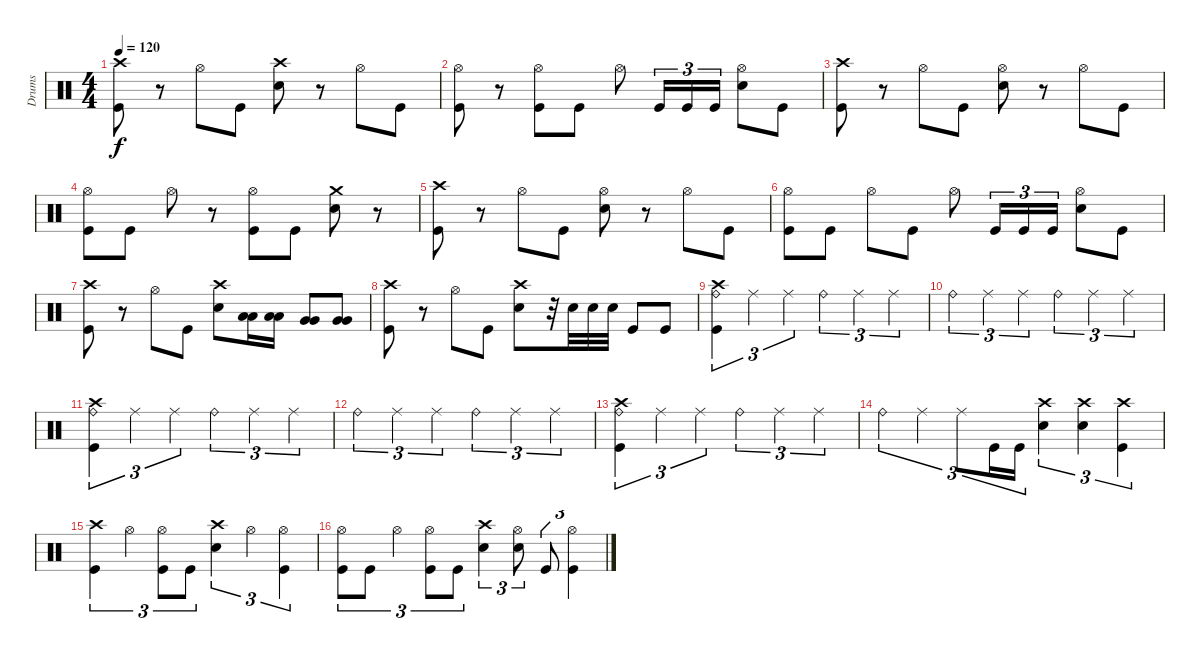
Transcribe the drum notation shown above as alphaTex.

\track ("Drums" "Drums") {instrument percussion}
\staff {score}
\articulation defaults
\ts (4 4)
\tempo 120
\clef neutral
\ks c
("Crash high (hit)" "Kick (hit)").8{dy f} r.8 "Hi-Hat (open)".8 "Kick (hit)".8 ("Crash high (hit)" "Electric Snare (hit)").8 r.8 "Hi-Hat (open)".8 "Kick (hit)".8 |
("Hi-Hat (open)" "Kick (hit)").8 r.8 ("Hi-Hat (open)" "Kick (hit)").8 "Kick (hit)".8 "Hi-Hat (open)".8 "Kick (hit)".16{tu (3 2)} "Kick (hit)".16{tu (3 2)} "Kick (hit)".16{tu (3 2)} ("Hi-Hat (open)" "Electric Snare (hit)").8 "Kick (hit)".8 |
("Crash high (hit)" "Kick (hit)").8 r.8 "Hi-Hat (open)".8 "Kick (hit)".8 ("Hi-Hat (open)" "Electric Snare (hit)").8 r.8 "Hi-Hat (open)".8 "Kick (hit)".8 |
("Hi-Hat (open)" "Kick (hit)").8 "Kick (hit)".8 "Hi-Hat (open)".8 r.8 ("Hi-Hat (open)" "Kick (hit)").8 "Kick (hit)".8 ("Crash medium (hit)" "Electric Snare (hit)").8 r.8 |
("Crash high (hit)" "Kick (hit)").8 r.8 "Hi-Hat (open)".8 "Kick (hit)".8 ("Hi-Hat (open)" "Electric Snare (hit)").8 r.8 "Hi-Hat (open)".8 "Kick (hit)".8 |
("Hi-Hat (open)" "Kick (hit)").8 "Kick (hit)".8 "Hi-Hat (open)".8 "Kick (hit)".8 "Hi-Hat (open)".8 "Kick (hit)".16{tu (3 2)} "Kick (hit)".16{tu (3 2)} "Kick (hit)".16{tu (3 2)} ("Hi-Hat (open)" "Electric Snare (hit)").8 "Kick (hit)".8 |
("Crash high (hit)" "Kick (hit)").8 r.8 "Hi-Hat (open)".8 "Kick (hit)".8 ("Crash high (hit)" "Electric Snare (hit)").8 ("Low Tom (hit)" "Low Tom (hit)").16 ("Low Tom (hit)" "Low Tom (hit)").16 ("Very Low Tom (hit)" "Very Low Tom (hit)").8 ("Very Low Tom (hit)" "Very Low Tom (hit)").8 |
("Crash high (hit)" "Kick (hit)").8 r.8 "Hi-Hat (open)".8 "Kick (hit)".8 ("Crash high (hit)" "Electric Snare (hit)").8 r.32 "Electric Snare (hit)".32 "Electric Snare (hit)".32 "Electric Snare (hit)".32 "Kick (hit)".8 "Kick (hit)".8 |
("Crash high (hit)" "Ride (bell)" "Kick (hit)").4{tu (3 2)} "Ride (middle)".4{tu (3 2)} "Ride (middle)".4{tu (3 2)} "Ride (bell)".4{tu (3 2)} "Ride (middle)".4{tu (3 2)} "Ride (middle)".4{tu (3 2)} |
"Ride (bell)".4{tu (3 2)} "Ride (middle)".4{tu (3 2)} "Ride (middle)".4{tu (3 2)} "Ride (bell)".4{tu (3 2)} "Ride (middle)".4{tu (3 2)} "Ride (middle)".4{tu (3 2)} |
("Crash high (hit)" "Ride (bell)" "Kick (hit)").4{tu (3 2)} "Ride (middle)".4{tu (3 2)} "Ride (middle)".4{tu (3 2)} "Ride (bell)".4{tu (3 2)} "Ride (middle)".4{tu (3 2)} "Ride (middle)".4{tu (3 2)} |
"Ride (bell)".4{tu (3 2)} "Ride (middle)".4{tu (3 2)} "Ride (middle)".4{tu (3 2)} "Ride (bell)".4{tu (3 2)} "Ride (middle)".4{tu (3 2)} "Ride (middle)".4{tu (3 2)} |
("Crash high (hit)" "Ride (bell)" "Kick (hit)").4{tu (3 2)} "Ride (middle)".4{tu (3 2)} "Ride (middle)".4{tu (3 2)} "Ride (bell)".4{tu (3 2)} "Ride (middle)".4{tu (3 2)} "Ride (middle)".4{tu (3 2)} |
"Ride (bell)".4{tu (3 2)} "Ride (middle)".4{tu (3 2)} "Ride (middle)".8{tu (3 2)} "Kick (hit)".16{tu (3 2)} "Kick (hit)".16{tu (3 2)} ("Crash high (hit)" "Electric Snare (hit)").4{tu (3 2)} ("Crash high (hit)" "Electric Snare (hit)").4{tu (3 2)} ("Crash high (hit)" "Kick (hit)").4{tu (3 2)} |
("Crash high (hit)" "Kick (hit)").4{tu (3 2)} "Hi-Hat (open)".4{tu (3 2)} ("Hi-Hat (open)" "Kick (hit)").8{tu (3 2)} "Kick (hit)".8{tu (3 2)} ("Crash high (hit)" "Electric Snare (hit)").4{tu (3 2)} "Hi-Hat (open)".4{tu (3 2)} ("Hi-Hat (open)" "Kick (hit)").4{tu (3 2)} |
("Hi-Hat (open)" "Kick (hit)").8{tu (3 2)} "Kick (hit)".8{tu (3 2)} "Hi-Hat (open)".4{tu (3 2)} ("Hi-Hat (open)" "Kick (hit)").8{tu (3 2)} "Kick (hit)".8{tu (3 2)} ("Crash high (hit)" "Electric Snare (hit)").4{tu (3 2)} ("Hi-Hat (open)" "Electric Snare (hit)").8{tu (3 2)} "Kick (hit)".8{tu (3 2)} ("Hi-Hat (open)" "Kick (hit)").4{tu (3 2)}
